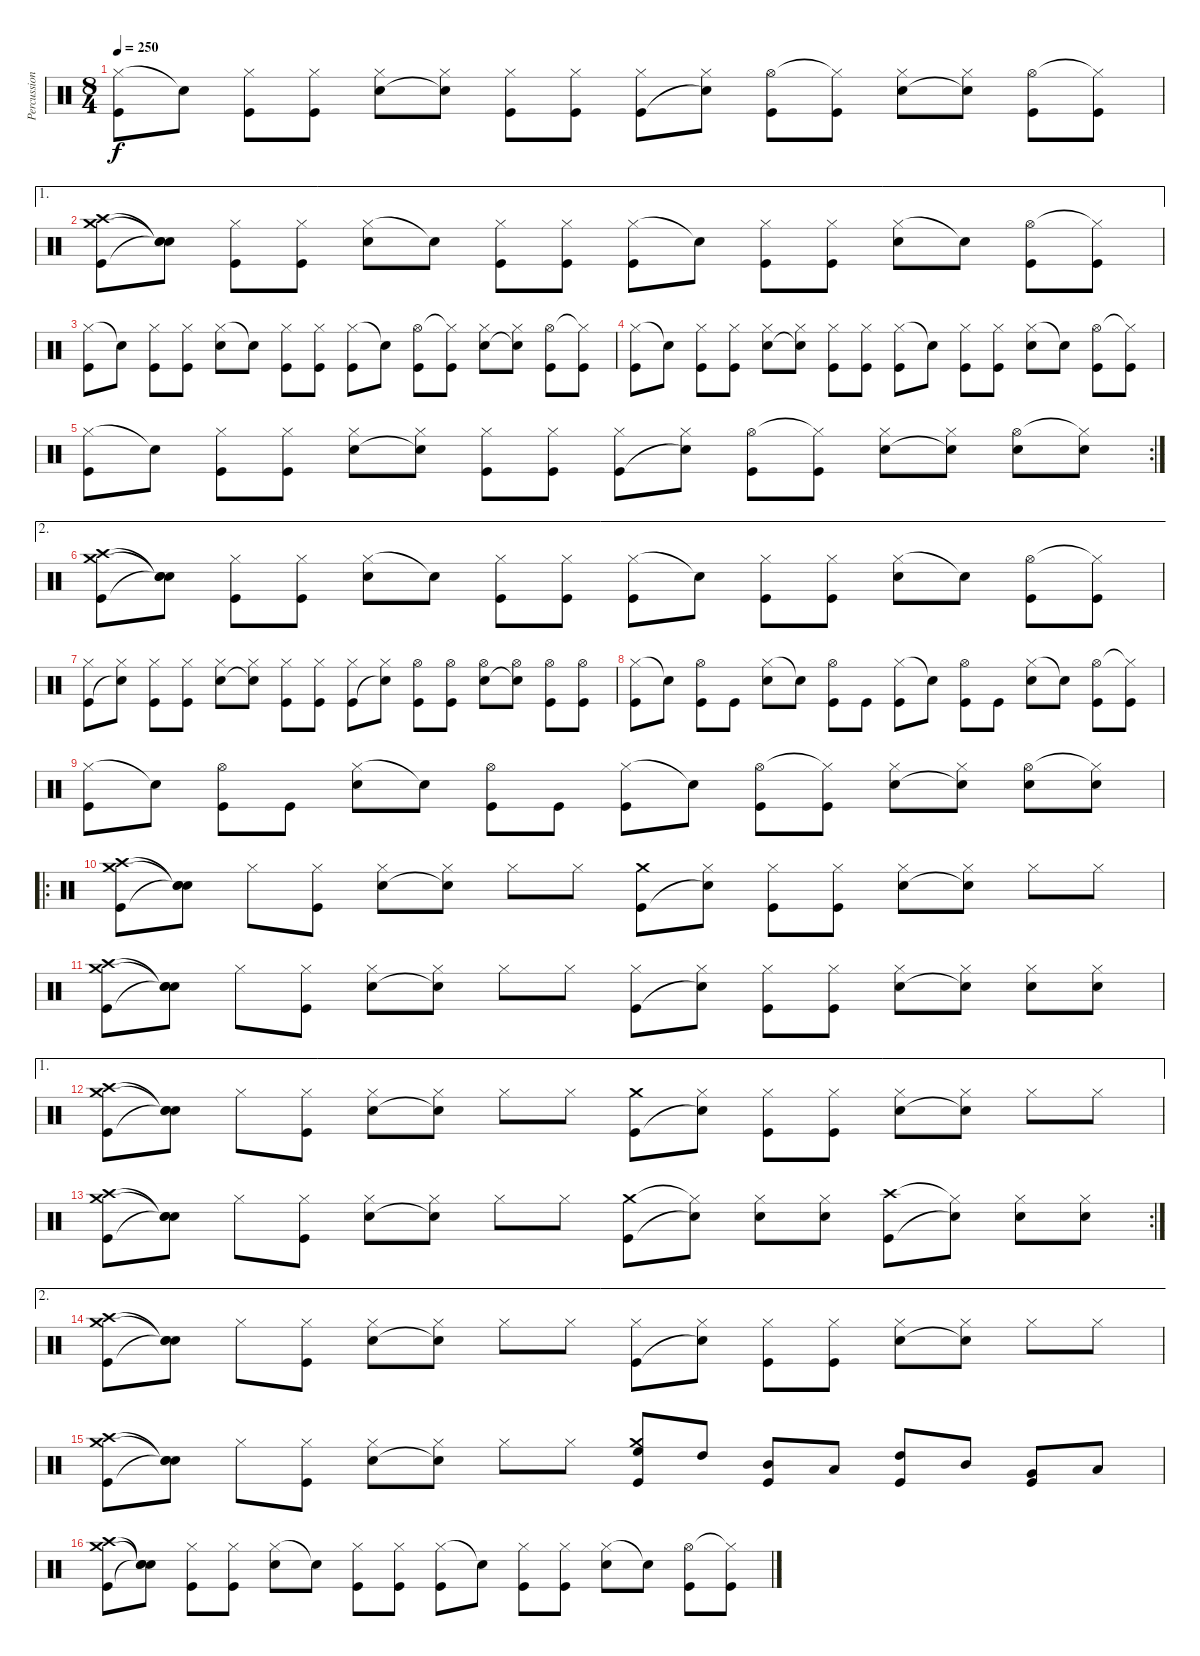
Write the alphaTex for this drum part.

\track ("Percussion" "Percussion") {instrument percussion}
\staff {score}
\articulation defaults
\ts (8 4)
\tempo 250
\clef neutral
\ks c
("Hi-Hat (closed)" "Kick (hit)").8{dy f} "Snare (hit)"{t}.8 ("Hi-Hat (closed)" "Kick (hit)").8 ("Hi-Hat (closed)" "Kick (hit)").8 ("Hi-Hat (closed)" "Snare (hit) 2").8 ("Hi-Hat (closed)" "Snare (hit)"{t}).8 ("Hi-Hat (closed)" "Kick (hit)").8 ("Hi-Hat (closed)" "Kick (hit)").8 ("Hi-Hat (closed)" "Kick (hit)").8 ("Hi-Hat (closed)" "Snare (hit)"{t}).8 ("Hi-Hat (open)" "Kick (hit)").8 ("Hi-Hat (closed)"{t} "Kick (hit)").8 ("Hi-Hat (closed)" "Snare (hit) 2").8 ("Hi-Hat (closed)" "Snare (hit)"{t}).8 ("Hi-Hat (open)" "Kick (hit)").8 ("Hi-Hat (closed)"{t} "Kick (hit)").8 |
\ae 1
("Crash medium (hit)" "Crash high (hit)" "Kick (hit)").8 ("Snare (hit)"{t} "Snare (hit)"{t} "Snare (hit)"{t}).8 ("Hi-Hat (closed)" "Kick (hit)").8 ("Hi-Hat (closed)" "Kick (hit)").8 ("Hi-Hat (closed)" "Snare (hit) 2").8 "Snare (hit)"{t}.8 ("Hi-Hat (closed)" "Kick (hit)").8 ("Hi-Hat (closed)" "Kick (hit)").8 ("Hi-Hat (closed)" "Kick (hit)").8 "Snare (hit)"{t}.8 ("Hi-Hat (closed)" "Kick (hit)").8 ("Hi-Hat (closed)" "Kick (hit)").8 ("Hi-Hat (closed)" "Snare (hit) 2").8 "Snare (hit)"{t}.8 ("Hi-Hat (open)" "Kick (hit)").8 ("Hi-Hat (closed)"{t} "Kick (hit)").8 |
("Hi-Hat (closed)" "Kick (hit)").8 "Snare (hit)"{t}.8 ("Hi-Hat (closed)" "Kick (hit)").8 ("Hi-Hat (closed)" "Kick (hit)").8 ("Hi-Hat (closed)" "Snare (hit) 2").8 "Snare (hit)"{t}.8 ("Hi-Hat (closed)" "Kick (hit)").8 ("Hi-Hat (closed)" "Kick (hit)").8 ("Hi-Hat (closed)" "Kick (hit)").8 "Snare (hit)"{t}.8 ("Hi-Hat (open)" "Kick (hit)").8 ("Hi-Hat (closed)"{t} "Kick (hit)").8 ("Hi-Hat (closed)" "Snare (hit) 2").8 ("Hi-Hat (closed)" "Snare (hit)"{t}).8 ("Hi-Hat (open)" "Kick (hit)").8 ("Hi-Hat (closed)"{t} "Kick (hit)").8 |
("Hi-Hat (closed)" "Kick (hit)").8 "Snare (hit)"{t}.8 ("Hi-Hat (closed)" "Kick (hit)").8 ("Hi-Hat (closed)" "Kick (hit)").8 ("Hi-Hat (closed)" "Snare (hit) 2").8 ("Hi-Hat (closed)" "Snare (hit)"{t}).8 ("Hi-Hat (closed)" "Kick (hit)").8 ("Hi-Hat (closed)" "Kick (hit)").8 ("Hi-Hat (closed)" "Kick (hit)").8 "Snare (hit)"{t}.8 ("Hi-Hat (closed)" "Kick (hit)").8 ("Hi-Hat (closed)" "Kick (hit)").8 ("Hi-Hat (closed)" "Snare (hit) 2").8 "Snare (hit)"{t}.8 ("Hi-Hat (open)" "Kick (hit)").8 ("Hi-Hat (closed)"{t} "Kick (hit)").8 |
\rc 2
("Hi-Hat (closed)" "Kick (hit)").8 "Snare (hit)"{t}.8 ("Hi-Hat (closed)" "Kick (hit)").8 ("Hi-Hat (closed)" "Kick (hit)").8 ("Hi-Hat (closed)" "Snare (hit) 2").8 ("Hi-Hat (closed)" "Snare (hit)"{t}).8 ("Hi-Hat (closed)" "Kick (hit)").8 ("Hi-Hat (closed)" "Kick (hit)").8 ("Hi-Hat (closed)" "Kick (hit)").8 ("Hi-Hat (closed)" "Snare (hit)"{t}).8 ("Hi-Hat (open)" "Kick (hit)").8 ("Hi-Hat (closed)"{t} "Kick (hit)").8 ("Hi-Hat (closed)" "Snare (hit) 2").8 ("Hi-Hat (closed)" "Snare (hit)"{t}).8 ("Hi-Hat (open)" "Snare (hit) 2").8 ("Hi-Hat (closed)"{t} "Snare (hit) 2").8 |
\ae 2
("Crash medium (hit)" "Crash high (hit)" "Kick (hit)").8 ("Snare (hit)"{t} "Snare (hit)"{t} "Snare (hit)"{t}).8 ("Hi-Hat (closed)" "Kick (hit)").8 ("Hi-Hat (closed)" "Kick (hit)").8 ("Hi-Hat (closed)" "Snare (hit) 2").8 "Snare (hit)"{t}.8 ("Hi-Hat (closed)" "Kick (hit)").8 ("Hi-Hat (closed)" "Kick (hit)").8 ("Hi-Hat (closed)" "Kick (hit)").8 "Snare (hit)"{t}.8 ("Hi-Hat (closed)" "Kick (hit)").8 ("Hi-Hat (closed)" "Kick (hit)").8 ("Hi-Hat (closed)" "Snare (hit) 2").8 "Snare (hit)"{t}.8 ("Hi-Hat (open)" "Kick (hit)").8 ("Hi-Hat (closed)"{t} "Kick (hit)").8 |
("Hi-Hat (closed)" "Kick (hit)").8 ("Hi-Hat (closed)" "Snare (hit)"{t}).8 ("Hi-Hat (closed)" "Kick (hit)").8 ("Hi-Hat (closed)" "Kick (hit)").8 ("Hi-Hat (closed)" "Snare (hit) 2").8 ("Hi-Hat (closed)" "Snare (hit)"{t}).8 ("Hi-Hat (closed)" "Kick (hit)").8 ("Hi-Hat (closed)" "Kick (hit)").8 ("Hi-Hat (closed)" "Kick (hit)").8 ("Hi-Hat (closed)" "Snare (hit)"{t}).8 ("Hi-Hat (open)" "Kick (hit)").8 ("Hi-Hat (open)" "Kick (hit)").8 ("Hi-Hat (open)" "Snare (hit) 2").8 ("Hi-Hat (open)" "Snare (hit)"{t}).8 ("Hi-Hat (open)" "Kick (hit)").8 ("Hi-Hat (open)" "Kick (hit)").8 |
("Hi-Hat (closed)" "Kick (hit)").8 "Snare (hit)"{t}.8 ("Hi-Hat (open)" "Kick (hit)").8 "Kick (hit)".8 ("Hi-Hat (closed)" "Snare (hit) 2").8 "Snare (hit)"{t}.8 ("Hi-Hat (open)" "Kick (hit)").8 "Kick (hit)".8 ("Hi-Hat (closed)" "Kick (hit)").8 "Snare (hit)"{t}.8 ("Hi-Hat (open)" "Kick (hit)").8 "Kick (hit)".8 ("Hi-Hat (closed)" "Snare (hit) 2").8 "Snare (hit)"{t}.8 ("Hi-Hat (open)" "Kick (hit)").8 ("Hi-Hat (closed)"{t} "Kick (hit)").8 |
("Hi-Hat (closed)" "Kick (hit)").8 "Snare (hit)"{t}.8 ("Hi-Hat (open)" "Kick (hit)").8 "Kick (hit)".8 ("Hi-Hat (closed)" "Snare (hit) 2").8 "Snare (hit)"{t}.8 ("Hi-Hat (open)" "Kick (hit)").8 "Kick (hit)".8 ("Hi-Hat (closed)" "Kick (hit)").8 "Snare (hit)"{t}.8 ("Hi-Hat (open)" "Kick (hit)").8 ("Hi-Hat (closed)"{t} "Kick (hit)").8 ("Hi-Hat (closed)" "Snare (hit) 2").8 ("Hi-Hat (closed)" "Snare (hit)"{t}).8 ("Hi-Hat (open)" "Snare (hit) 2").8 ("Hi-Hat (closed)"{t} "Snare (hit) 2").8 |
\ro
("Crash medium (hit)" "Crash high (hit)" "Kick (hit)").8 ("Snare (hit)"{t} "Snare (hit)"{t} "Snare (hit)"{t}).8 "Hi-Hat (closed)".8 ("Hi-Hat (closed)" "Kick (hit)").8 ("Hi-Hat (closed)" "Snare (hit) 2").8 ("Hi-Hat (closed)" "Snare (hit)"{t}).8 "Hi-Hat (closed)".8 "Hi-Hat (closed)".8 ("Crash medium (hit)" "Kick (hit)").8 ("Hi-Hat (closed)" "Snare (hit)"{t}).8 ("Hi-Hat (closed)" "Kick (hit)").8 ("Hi-Hat (closed)" "Kick (hit)").8 ("Hi-Hat (closed)" "Snare (hit) 2").8 ("Hi-Hat (closed)" "Snare (hit)"{t}).8 "Hi-Hat (closed)".8 "Hi-Hat (closed)".8 |
("Crash medium (hit)" "Crash high (hit)" "Kick (hit)").8 ("Snare (hit)"{t} "Snare (hit)"{t} "Snare (hit)"{t}).8 "Hi-Hat (closed)".8 ("Hi-Hat (closed)" "Kick (hit)").8 ("Hi-Hat (closed)" "Snare (hit) 2").8 ("Hi-Hat (closed)" "Snare (hit)"{t}).8 "Hi-Hat (closed)".8 "Hi-Hat (closed)".8 ("Hi-Hat (closed)" "Kick (hit)").8 ("Hi-Hat (closed)" "Snare (hit)"{t}).8 ("Hi-Hat (closed)" "Kick (hit)").8 ("Hi-Hat (closed)" "Kick (hit)").8 ("Hi-Hat (closed)" "Snare (hit) 2").8 ("Hi-Hat (closed)" "Snare (hit)"{t}).8 ("Hi-Hat (closed)" "Snare (hit) 2").8 ("Hi-Hat (closed)" "Snare (hit) 2").8 |
\ae 1
("Crash medium (hit)" "Crash high (hit)" "Kick (hit)").8 ("Snare (hit)"{t} "Snare (hit)"{t} "Snare (hit)"{t}).8 "Hi-Hat (closed)".8 ("Hi-Hat (closed)" "Kick (hit)").8 ("Hi-Hat (closed)" "Snare (hit) 2").8 ("Hi-Hat (closed)" "Snare (hit)"{t}).8 "Hi-Hat (closed)".8 "Hi-Hat (closed)".8 ("Crash medium (hit)" "Kick (hit)").8 ("Hi-Hat (closed)" "Snare (hit)"{t}).8 ("Hi-Hat (closed)" "Kick (hit)").8 ("Hi-Hat (closed)" "Kick (hit)").8 ("Hi-Hat (closed)" "Snare (hit) 2").8 ("Hi-Hat (closed)" "Snare (hit)"{t}).8 "Hi-Hat (closed)".8 "Hi-Hat (closed)".8 |
\rc 2
("Crash medium (hit)" "Crash high (hit)" "Kick (hit)").8 ("Snare (hit)"{t} "Snare (hit)"{t} "Snare (hit)"{t}).8 "Hi-Hat (closed)".8 ("Hi-Hat (closed)" "Kick (hit)").8 ("Hi-Hat (closed)" "Snare (hit) 2").8 ("Hi-Hat (closed)" "Snare (hit)"{t}).8 "Hi-Hat (closed)".8 "Hi-Hat (closed)".8 ("Crash medium (hit)" "Kick (hit)").8 ("Hi-Hat (closed)"{t} "Snare (hit)"{t}).8 ("Hi-Hat (closed)" "Snare (hit) 2").8 ("Hi-Hat (closed)" "Snare (hit) 2").8 ("Crash high (hit)" "Kick (hit)").8 ("Hi-Hat (closed)"{t} "Snare (hit)"{t}).8 ("Hi-Hat (closed)" "Snare (hit) 2").8 ("Hi-Hat (closed)" "Snare (hit) 2").8 |
\ae 2
("Crash medium (hit)" "Crash high (hit)" "Kick (hit)").8 ("Snare (hit)"{t} "Snare (hit)"{t} "Snare (hit)"{t}).8 "Hi-Hat (closed)".8 ("Hi-Hat (closed)" "Kick (hit)").8 ("Hi-Hat (closed)" "Snare (hit) 2").8 ("Hi-Hat (closed)" "Snare (hit)"{t}).8 "Hi-Hat (closed)".8 "Hi-Hat (closed)".8 ("Hi-Hat (closed)" "Kick (hit)").8 ("Hi-Hat (closed)" "Snare (hit)"{t}).8 ("Hi-Hat (closed)" "Kick (hit)").8 ("Hi-Hat (closed)" "Kick (hit)").8 ("Hi-Hat (closed)" "Snare (hit) 2").8 ("Hi-Hat (closed)" "Snare (hit)"{t}).8 "Hi-Hat (closed)".8 "Hi-Hat (closed)".8 |
("Crash medium (hit)" "Crash high (hit)" "Kick (hit)").8 ("Snare (hit)"{t} "Snare (hit)"{t} "Snare (hit)"{t}).8 "Hi-Hat (closed)".8 ("Hi-Hat (closed)" "Kick (hit)").8 ("Hi-Hat (closed)" "Snare (hit) 2").8 ("Hi-Hat (closed)" "Snare (hit)"{t}).8 "Hi-Hat (closed)".8 "Hi-Hat (closed)".8 ("Crash medium (hit)" "High Floor Tom (hit)" "Kick (hit)").8 "High Tom (hit)".8 ("Mid Tom (hit)" "Kick (hit)").8 "Low Tom (hit)".8 ("High Tom (hit)" "Kick (hit)").8 "Mid Tom (hit)".8 ("Very Low Tom (hit)" "Kick (hit)").8 "Low Floor Tom (hit)".8 |
("Crash medium (hit)" "Crash high (hit)" "Kick (hit)").8 ("Snare (hit)"{t} "Snare (hit)"{t} "Snare (hit)"{t}).8 ("Hi-Hat (closed)" "Kick (hit)").8 ("Hi-Hat (closed)" "Kick (hit)").8 ("Hi-Hat (closed)" "Snare (hit) 2").8 "Snare (hit)"{t}.8 ("Hi-Hat (closed)" "Kick (hit)").8 ("Hi-Hat (closed)" "Kick (hit)").8 ("Hi-Hat (closed)" "Kick (hit)").8 "Snare (hit)"{t}.8 ("Hi-Hat (closed)" "Kick (hit)").8 ("Hi-Hat (closed)" "Kick (hit)").8 ("Hi-Hat (closed)" "Snare (hit) 2").8 "Snare (hit)"{t}.8 ("Hi-Hat (open)" "Kick (hit)").8 ("Hi-Hat (closed)"{t} "Kick (hit)").8
